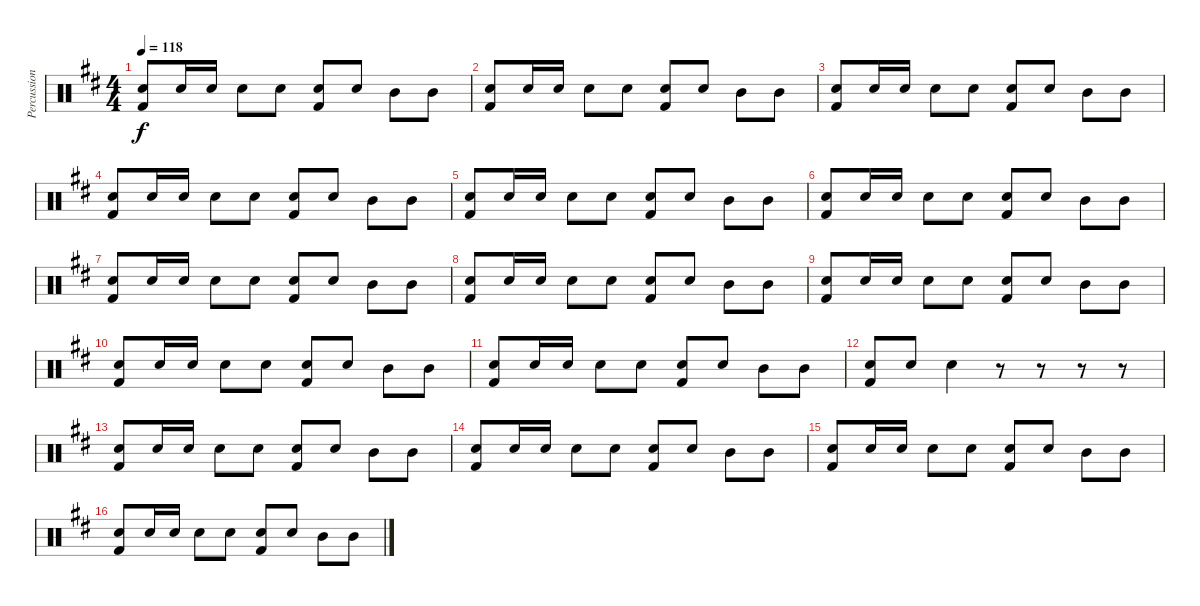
\track ("Percussion" "Percussion") {instrument percussion}
\staff {score}
\articulation defaults
\ts (4 4)
\tempo 118
\clef neutral
\ks d
("Snare (hit) 2" "Kick (hit) 2").8{dy f} "Snare (hit) 2".16 "Snare (hit) 2".16 "Snare (hit) 2".8 "Snare (hit) 2".8 ("Snare (hit) 2" "Kick (hit) 2").8 "Snare (hit) 2".8 "Mid Tom (hit)".8 "Mid Tom (hit)".8 |
("Snare (hit) 2" "Kick (hit) 2").8 "Snare (hit) 2".16 "Snare (hit) 2".16 "Snare (hit) 2".8 "Snare (hit) 2".8 ("Snare (hit) 2" "Kick (hit) 2").8 "Snare (hit) 2".8 "Mid Tom (hit)".8 "Mid Tom (hit)".8 |
("Snare (hit) 2" "Kick (hit) 2").8 "Snare (hit) 2".16 "Snare (hit) 2".16 "Snare (hit) 2".8 "Snare (hit) 2".8 ("Snare (hit) 2" "Kick (hit) 2").8 "Snare (hit) 2".8 "Mid Tom (hit)".8 "Mid Tom (hit)".8 |
("Snare (hit) 2" "Kick (hit) 2").8 "Snare (hit) 2".16 "Snare (hit) 2".16 "Snare (hit) 2".8 "Snare (hit) 2".8 ("Snare (hit) 2" "Kick (hit) 2").8 "Snare (hit) 2".8 "Mid Tom (hit)".8 "Mid Tom (hit)".8 |
("Snare (hit) 2" "Kick (hit) 2").8 "Snare (hit) 2".16 "Snare (hit) 2".16 "Snare (hit) 2".8 "Snare (hit) 2".8 ("Snare (hit) 2" "Kick (hit) 2").8 "Snare (hit) 2".8 "Mid Tom (hit)".8 "Mid Tom (hit)".8 |
("Snare (hit) 2" "Kick (hit) 2").8 "Snare (hit) 2".16 "Snare (hit) 2".16 "Snare (hit) 2".8 "Snare (hit) 2".8 ("Snare (hit) 2" "Kick (hit) 2").8 "Snare (hit) 2".8 "Mid Tom (hit)".8 "Mid Tom (hit)".8 |
("Snare (hit) 2" "Kick (hit) 2").8 "Snare (hit) 2".16 "Snare (hit) 2".16 "Snare (hit) 2".8 "Snare (hit) 2".8 ("Snare (hit) 2" "Kick (hit) 2").8 "Snare (hit) 2".8 "Mid Tom (hit)".8 "Mid Tom (hit)".8 |
("Snare (hit) 2" "Kick (hit) 2").8 "Snare (hit) 2".16 "Snare (hit) 2".16 "Snare (hit) 2".8 "Snare (hit) 2".8 ("Snare (hit) 2" "Kick (hit) 2").8 "Snare (hit) 2".8 "Mid Tom (hit)".8 "Mid Tom (hit)".8 |
("Snare (hit) 2" "Kick (hit) 2").8 "Snare (hit) 2".16 "Snare (hit) 2".16 "Snare (hit) 2".8 "Snare (hit) 2".8 ("Snare (hit) 2" "Kick (hit) 2").8 "Snare (hit) 2".8 "Mid Tom (hit)".8 "Mid Tom (hit)".8 |
("Snare (hit) 2" "Kick (hit) 2").8 "Snare (hit) 2".16 "Snare (hit) 2".16 "Snare (hit) 2".8 "Snare (hit) 2".8 ("Snare (hit) 2" "Kick (hit) 2").8 "Snare (hit) 2".8 "Mid Tom (hit)".8 "Mid Tom (hit)".8 |
("Snare (hit) 2" "Kick (hit) 2").8 "Snare (hit) 2".16 "Snare (hit) 2".16 "Snare (hit) 2".8 "Snare (hit) 2".8 ("Snare (hit) 2" "Kick (hit) 2").8 "Snare (hit) 2".8 "Mid Tom (hit)".8 "Mid Tom (hit)".8 |
("Snare (hit) 2" "Kick (hit) 2").8 "Snare (hit) 2".8 "Snare (hit) 2".4 r.8 r.8 r.8 r.8 |
("Snare (hit) 2" "Kick (hit) 2").8 "Snare (hit) 2".16 "Snare (hit) 2".16 "Snare (hit) 2".8 "Snare (hit) 2".8 ("Snare (hit) 2" "Kick (hit) 2").8 "Snare (hit) 2".8 "Mid Tom (hit)".8 "Mid Tom (hit)".8 |
("Snare (hit) 2" "Kick (hit) 2").8 "Snare (hit) 2".16 "Snare (hit) 2".16 "Snare (hit) 2".8 "Snare (hit) 2".8 ("Snare (hit) 2" "Kick (hit) 2").8 "Snare (hit) 2".8 "Mid Tom (hit)".8 "Mid Tom (hit)".8 |
("Snare (hit) 2" "Kick (hit) 2").8 "Snare (hit) 2".16 "Snare (hit) 2".16 "Snare (hit) 2".8 "Snare (hit) 2".8 ("Snare (hit) 2" "Kick (hit) 2").8 "Snare (hit) 2".8 "Mid Tom (hit)".8 "Mid Tom (hit)".8 |
("Snare (hit) 2" "Kick (hit) 2").8 "Snare (hit) 2".16 "Snare (hit) 2".16 "Snare (hit) 2".8 "Snare (hit) 2".8 ("Snare (hit) 2" "Kick (hit) 2").8 "Snare (hit) 2".8 "Mid Tom (hit)".8 "Mid Tom (hit)".8
